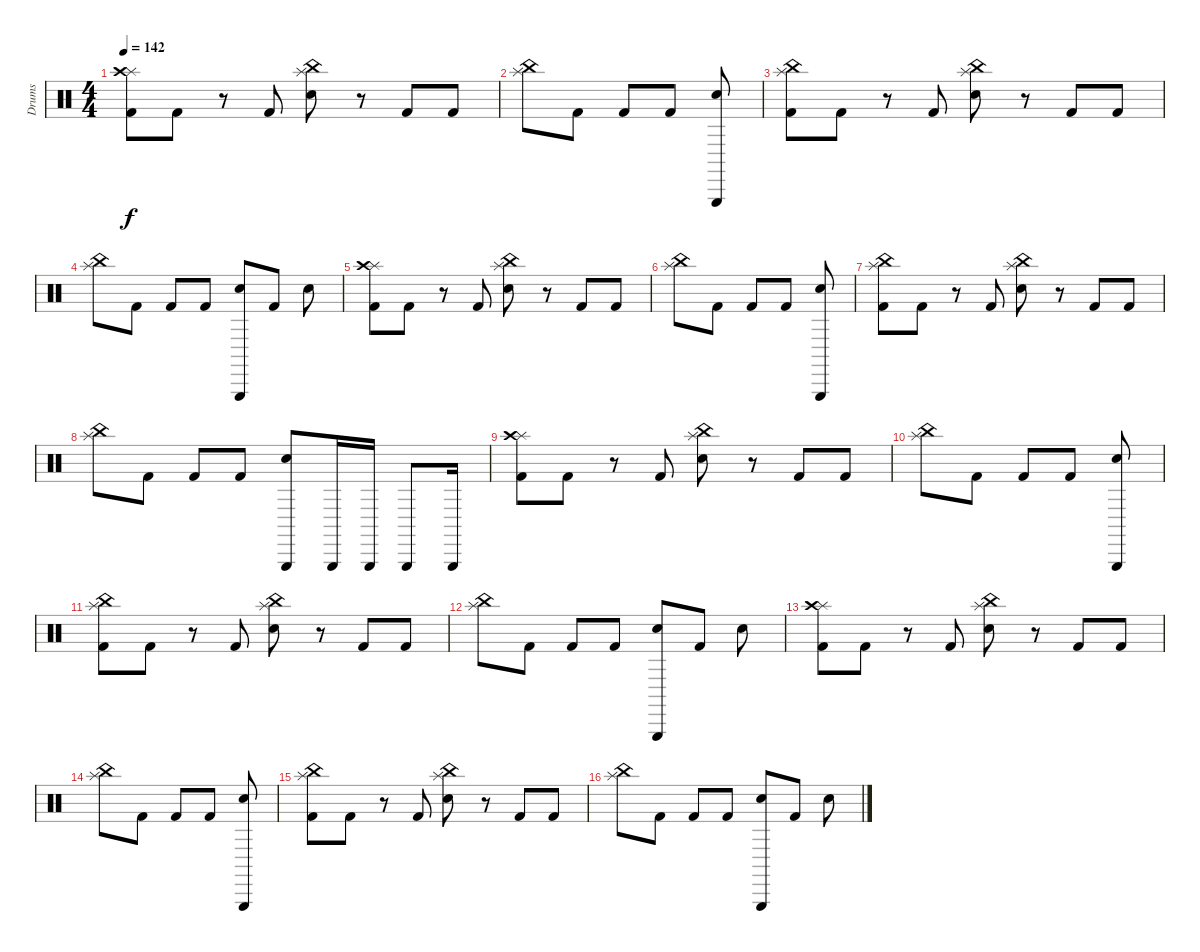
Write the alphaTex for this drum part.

\track ("Drums" "Drums") {instrument percussion}
\staff {score}
\articulation defaults
\ts (4 4)
\tempo 142
\clef neutral
\ks c
("Splash (hit)" "Crash high (hit)" "Kick (hit) 2").8{dy f} "Kick (hit) 2".8 r.8 "Kick (hit) 2".8 ("China (hit)" "Splash (hit)" "Snare (hit) 2").8 r.8 "Kick (hit) 2".8 "Kick (hit) 2".8 |
("China (hit)" "Splash (hit)").8 "Kick (hit) 2".8 "Kick (hit) 2".8 "Kick (hit) 2".8 ("Triangle (hit)" "Snare (hit) 2").8 |
("China (hit)" "Splash (hit)" "Kick (hit) 2").8 "Kick (hit) 2".8 r.8 "Kick (hit) 2".8 ("China (hit)" "Splash (hit)" "Snare (hit) 2").8 r.8 "Kick (hit) 2".8 "Kick (hit) 2".8 |
("China (hit)" "Splash (hit)").8 "Kick (hit) 2".8 "Kick (hit) 2".8 "Kick (hit) 2".8 ("Triangle (hit)" "Snare (hit) 2").8 "Kick (hit) 2".8 "Snare (hit) 2".8 |
("Splash (hit)" "Crash high (hit)" "Kick (hit) 2").8 "Kick (hit) 2".8 r.8 "Kick (hit) 2".8 ("China (hit)" "Splash (hit)" "Snare (hit) 2").8 r.8 "Kick (hit) 2".8 "Kick (hit) 2".8 |
("China (hit)" "Splash (hit)").8 "Kick (hit) 2".8 "Kick (hit) 2".8 "Kick (hit) 2".8 ("Triangle (hit)" "Snare (hit) 2").8 |
("China (hit)" "Splash (hit)" "Kick (hit) 2").8 "Kick (hit) 2".8 r.8 "Kick (hit) 2".8 ("China (hit)" "Splash (hit)" "Snare (hit) 2").8 r.8 "Kick (hit) 2".8 "Kick (hit) 2".8 |
("China (hit)" "Splash (hit)").8 "Kick (hit) 2".8 "Kick (hit) 2".8 "Kick (hit) 2".8 ("Triangle (hit)" "Snare (hit) 2").8 "Triangle (hit)".16 "Triangle (hit)".16 "Triangle (hit)".8 "Triangle (hit)".16 |
("Splash (hit)" "Crash high (hit)" "Kick (hit) 2").8 "Kick (hit) 2".8 r.8 "Kick (hit) 2".8 ("China (hit)" "Splash (hit)" "Snare (hit) 2").8 r.8 "Kick (hit) 2".8 "Kick (hit) 2".8 |
("China (hit)" "Splash (hit)").8 "Kick (hit) 2".8 "Kick (hit) 2".8 "Kick (hit) 2".8 ("Triangle (hit)" "Snare (hit) 2").8 |
("China (hit)" "Splash (hit)" "Kick (hit) 2").8 "Kick (hit) 2".8 r.8 "Kick (hit) 2".8 ("China (hit)" "Splash (hit)" "Snare (hit) 2").8 r.8 "Kick (hit) 2".8 "Kick (hit) 2".8 |
("China (hit)" "Splash (hit)").8 "Kick (hit) 2".8 "Kick (hit) 2".8 "Kick (hit) 2".8 ("Triangle (hit)" "Snare (hit) 2").8 "Kick (hit) 2".8 "Snare (hit) 2".8 |
("Splash (hit)" "Crash high (hit)" "Kick (hit) 2").8 "Kick (hit) 2".8 r.8 "Kick (hit) 2".8 ("China (hit)" "Splash (hit)" "Snare (hit) 2").8 r.8 "Kick (hit) 2".8 "Kick (hit) 2".8 |
("China (hit)" "Splash (hit)").8 "Kick (hit) 2".8 "Kick (hit) 2".8 "Kick (hit) 2".8 ("Triangle (hit)" "Snare (hit) 2").8 |
("China (hit)" "Splash (hit)" "Kick (hit) 2").8 "Kick (hit) 2".8 r.8 "Kick (hit) 2".8 ("China (hit)" "Splash (hit)" "Snare (hit) 2").8 r.8 "Kick (hit) 2".8 "Kick (hit) 2".8 |
("China (hit)" "Splash (hit)").8 "Kick (hit) 2".8 "Kick (hit) 2".8 "Kick (hit) 2".8 ("Triangle (hit)" "Snare (hit) 2").8 "Kick (hit) 2".8 "Snare (hit) 2".8
